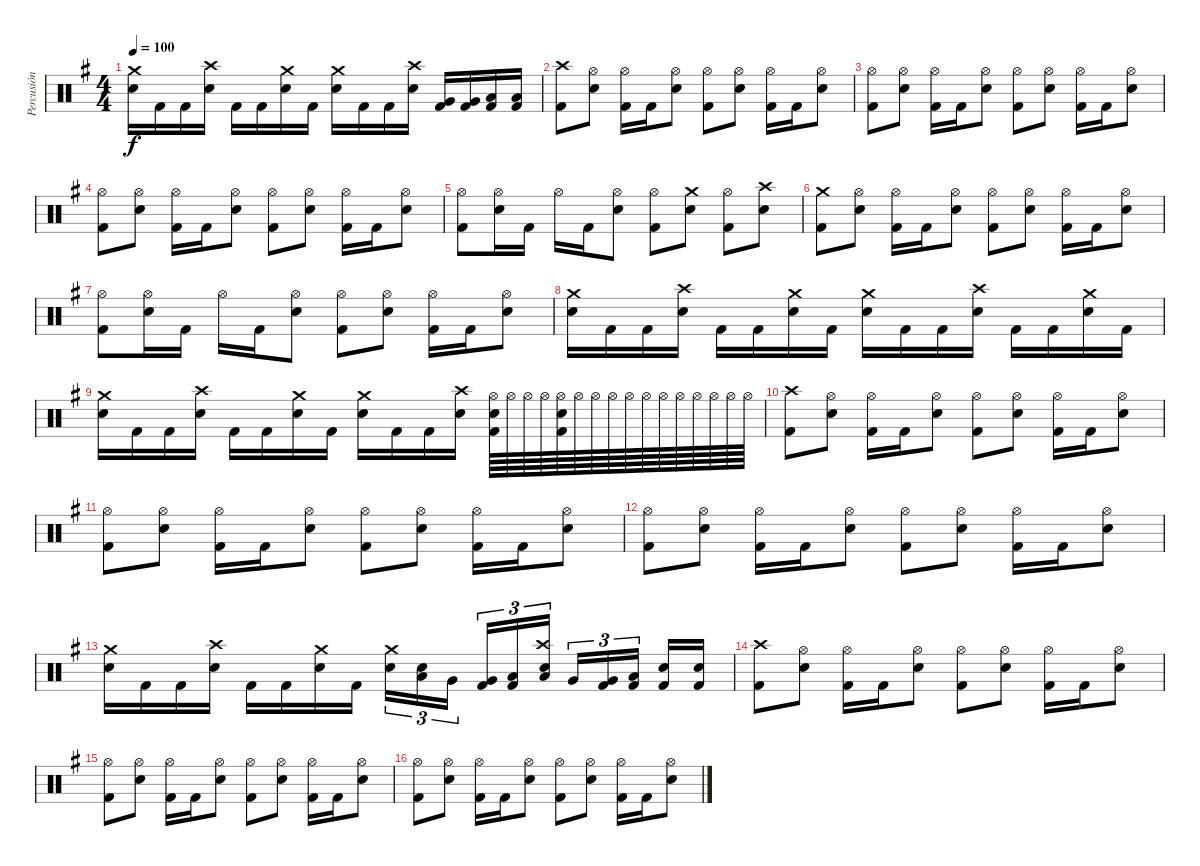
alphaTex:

\track ("Percusión" "Percusión") {instrument percussion}
\staff {score}
\articulation defaults
\ts (4 4)
\tempo 100
\clef neutral
\ks g
("Crash medium (hit)" "Electric Snare (hit)").16{dy f} "Kick (hit) 2".16 "Kick (hit) 2".16 ("Crash high (hit)" "Electric Snare (hit)").16 "Kick (hit) 2".16 "Kick (hit) 2".16 ("Crash medium (hit)" "Electric Snare (hit)").16 "Kick (hit) 2".16 ("Crash medium (hit)" "Electric Snare (hit)").16 "Kick (hit) 2".16 "Kick (hit) 2".16 ("Crash high (hit)" "Electric Snare (hit)").16 ("Very Low Tom (hit)" "Kick (hit) 2").16 ("Very Low Tom (hit)" "Kick (hit) 2").16 ("Low Floor Tom (hit)" "Kick (hit) 2").16 ("Low Floor Tom (hit)" "Kick (hit) 2").16 |
("Crash high (hit)" "Kick (hit) 2").8 ("Hi-Hat (open)" "Electric Snare (hit)").8 ("Hi-Hat (open)" "Kick (hit) 2").16 "Kick (hit) 2".16 ("Hi-Hat (open)" "Electric Snare (hit)").8 ("Hi-Hat (open)" "Kick (hit) 2").8 ("Hi-Hat (open)" "Electric Snare (hit)").8 ("Hi-Hat (open)" "Kick (hit) 2").16 "Kick (hit) 2".16 ("Hi-Hat (open)" "Electric Snare (hit)").8 |
("Hi-Hat (open)" "Kick (hit) 2").8 ("Hi-Hat (open)" "Electric Snare (hit)").8 ("Hi-Hat (open)" "Kick (hit) 2").16 "Kick (hit) 2".16 ("Hi-Hat (open)" "Electric Snare (hit)").8 ("Hi-Hat (open)" "Kick (hit) 2").8 ("Hi-Hat (open)" "Electric Snare (hit)").8 ("Hi-Hat (open)" "Kick (hit) 2").16 "Kick (hit) 2".16 ("Hi-Hat (open)" "Electric Snare (hit)").8 |
("Hi-Hat (open)" "Kick (hit) 2").8 ("Hi-Hat (open)" "Electric Snare (hit)").8 ("Hi-Hat (open)" "Kick (hit) 2").16 "Kick (hit) 2".16 ("Hi-Hat (open)" "Electric Snare (hit)").8 ("Hi-Hat (open)" "Kick (hit) 2").8 ("Hi-Hat (open)" "Electric Snare (hit)").8 ("Hi-Hat (open)" "Kick (hit) 2").16 "Kick (hit) 2".16 ("Hi-Hat (open)" "Electric Snare (hit)").8 |
("Hi-Hat (open)" "Kick (hit) 2").8 ("Hi-Hat (open)" "Electric Snare (hit)").16 "Kick (hit) 2".16 "Hi-Hat (open)".16 "Kick (hit) 2".16 ("Hi-Hat (open)" "Electric Snare (hit)").8 ("Hi-Hat (open)" "Kick (hit) 2").8 ("Crash medium (hit)" "Electric Snare (hit)").8 ("Hi-Hat (open)" "Kick (hit) 2").8 ("Crash high (hit)" "Electric Snare (hit)").8 |
("Crash medium (hit)" "Kick (hit) 2").8 ("Hi-Hat (open)" "Electric Snare (hit)").8 ("Hi-Hat (open)" "Kick (hit) 2").16 "Kick (hit) 2".16 ("Hi-Hat (open)" "Electric Snare (hit)").8 ("Hi-Hat (open)" "Kick (hit) 2").8 ("Hi-Hat (open)" "Electric Snare (hit)").8 ("Hi-Hat (open)" "Kick (hit) 2").16 "Kick (hit) 2".16 ("Hi-Hat (open)" "Electric Snare (hit)").8 |
("Hi-Hat (open)" "Kick (hit) 2").8 ("Hi-Hat (open)" "Electric Snare (hit)").16 "Kick (hit) 2".16 "Hi-Hat (open)".16 "Kick (hit) 2".16 ("Hi-Hat (open)" "Electric Snare (hit)").8 ("Hi-Hat (open)" "Kick (hit) 2").8 ("Hi-Hat (open)" "Electric Snare (hit)").8 ("Hi-Hat (open)" "Kick (hit) 2").16 "Kick (hit) 2".16 ("Hi-Hat (open)" "Electric Snare (hit)").8 |
("Crash medium (hit)" "Electric Snare (hit)").16 "Kick (hit) 2".16 "Kick (hit) 2".16 ("Crash high (hit)" "Electric Snare (hit)").16 "Kick (hit) 2".16 "Kick (hit) 2".16 ("Crash medium (hit)" "Electric Snare (hit)").16 "Kick (hit) 2".16 ("Crash medium (hit)" "Electric Snare (hit)").16 "Kick (hit) 2".16 "Kick (hit) 2".16 ("Crash high (hit)" "Electric Snare (hit)").16 "Kick (hit) 2".16 "Kick (hit) 2".16 ("Crash medium (hit)" "Electric Snare (hit)").16 "Kick (hit) 2".16 |
("Crash medium (hit)" "Electric Snare (hit)").16 "Kick (hit) 2".16 "Kick (hit) 2".16 ("Crash high (hit)" "Electric Snare (hit)").16 "Kick (hit) 2".16 "Kick (hit) 2".16 ("Crash medium (hit)" "Electric Snare (hit)").16 "Kick (hit) 2".16 ("Crash medium (hit)" "Electric Snare (hit)").16 "Kick (hit) 2".16 "Kick (hit) 2".16 ("Crash high (hit)" "Electric Snare (hit)").16 ("Hi-Hat (open)" "Electric Snare (hit)" "Kick (hit) 2").64 "Hi-Hat (open)".64 "Hi-Hat (open)".64 "Hi-Hat (open)".64 ("Hi-Hat (open)" "Electric Snare (hit)" "Kick (hit) 2").64 "Hi-Hat (open)".64 "Hi-Hat (open)".64 "Hi-Hat (open)".64 "Hi-Hat (open)".64 "Hi-Hat (open)".64 "Hi-Hat (open)".64 "Hi-Hat (open)".64 "Hi-Hat (open)".64 "Hi-Hat (open)".64 "Hi-Hat (open)".64 "Hi-Hat (open)".64 |
("Crash high (hit)" "Kick (hit) 2").8 ("Hi-Hat (open)" "Electric Snare (hit)").8 ("Hi-Hat (open)" "Kick (hit) 2").16 "Kick (hit) 2".16 ("Hi-Hat (open)" "Electric Snare (hit)").8 ("Hi-Hat (open)" "Kick (hit) 2").8 ("Hi-Hat (open)" "Electric Snare (hit)").8 ("Hi-Hat (open)" "Kick (hit) 2").16 "Kick (hit) 2".16 ("Hi-Hat (open)" "Electric Snare (hit)").8 |
("Hi-Hat (open)" "Kick (hit) 2").8 ("Hi-Hat (open)" "Electric Snare (hit)").8 ("Hi-Hat (open)" "Kick (hit) 2").16 "Kick (hit) 2".16 ("Hi-Hat (open)" "Electric Snare (hit)").8 ("Hi-Hat (open)" "Kick (hit) 2").8 ("Hi-Hat (open)" "Electric Snare (hit)").8 ("Hi-Hat (open)" "Kick (hit) 2").16 "Kick (hit) 2".16 ("Hi-Hat (open)" "Electric Snare (hit)").8 |
("Hi-Hat (open)" "Kick (hit) 2").8 ("Hi-Hat (open)" "Electric Snare (hit)").8 ("Hi-Hat (open)" "Kick (hit) 2").16 "Kick (hit) 2".16 ("Hi-Hat (open)" "Electric Snare (hit)").8 ("Hi-Hat (open)" "Kick (hit) 2").8 ("Hi-Hat (open)" "Electric Snare (hit)").8 ("Hi-Hat (open)" "Kick (hit) 2").16 "Kick (hit) 2".16 ("Hi-Hat (open)" "Electric Snare (hit)").8 |
("Crash medium (hit)" "Electric Snare (hit)").16 "Kick (hit) 2".16 "Kick (hit) 2".16 ("Crash high (hit)" "Electric Snare (hit)").16 "Kick (hit) 2".16 "Kick (hit) 2".16 ("Crash medium (hit)" "Electric Snare (hit)").16 "Kick (hit) 2".16 ("Crash medium (hit)" "Electric Snare (hit)").16{tu (3 2)} ("Electric Snare (hit)" "Low Tom (hit)").16{tu (3 2)} "Very Low Tom (hit)".16{tu (3 2) beam splitsecondary} ("Very Low Tom (hit)" "Kick (hit) 2").16{tu (3 2)} ("Low Floor Tom (hit)" "Kick (hit) 2").16{tu (3 2)} ("Crash high (hit)" "Electric Snare (hit)" "Low Tom (hit)").16{tu (3 2)} "Very Low Tom (hit)".16{tu (3 2)} ("Very Low Tom (hit)" "Kick (hit) 2").16{tu (3 2)} ("Low Floor Tom (hit)" "Kick (hit) 2").16{tu (3 2) beam splitsecondary} ("Electric Snare (hit)" "Kick (hit) 2").16 ("Electric Snare (hit)" "Kick (hit) 2").16 |
("Crash high (hit)" "Kick (hit) 2").8 ("Hi-Hat (open)" "Electric Snare (hit)").8 ("Hi-Hat (open)" "Kick (hit) 2").16 "Kick (hit) 2".16 ("Hi-Hat (open)" "Electric Snare (hit)").8 ("Hi-Hat (open)" "Kick (hit) 2").8 ("Hi-Hat (open)" "Electric Snare (hit)").8 ("Hi-Hat (open)" "Kick (hit) 2").16 "Kick (hit) 2".16 ("Hi-Hat (open)" "Electric Snare (hit)").8 |
("Hi-Hat (open)" "Kick (hit) 2").8 ("Hi-Hat (open)" "Electric Snare (hit)").8 ("Hi-Hat (open)" "Kick (hit) 2").16 "Kick (hit) 2".16 ("Hi-Hat (open)" "Electric Snare (hit)").8 ("Hi-Hat (open)" "Kick (hit) 2").8 ("Hi-Hat (open)" "Electric Snare (hit)").8 ("Hi-Hat (open)" "Kick (hit) 2").16 "Kick (hit) 2".16 ("Hi-Hat (open)" "Electric Snare (hit)").8 |
("Hi-Hat (open)" "Kick (hit) 2").8 ("Hi-Hat (open)" "Electric Snare (hit)").8 ("Hi-Hat (open)" "Kick (hit) 2").16 "Kick (hit) 2".16 ("Hi-Hat (open)" "Electric Snare (hit)").8 ("Hi-Hat (open)" "Kick (hit) 2").8 ("Hi-Hat (open)" "Electric Snare (hit)").8 ("Hi-Hat (open)" "Kick (hit) 2").16 "Kick (hit) 2".16 ("Hi-Hat (open)" "Electric Snare (hit)").8
